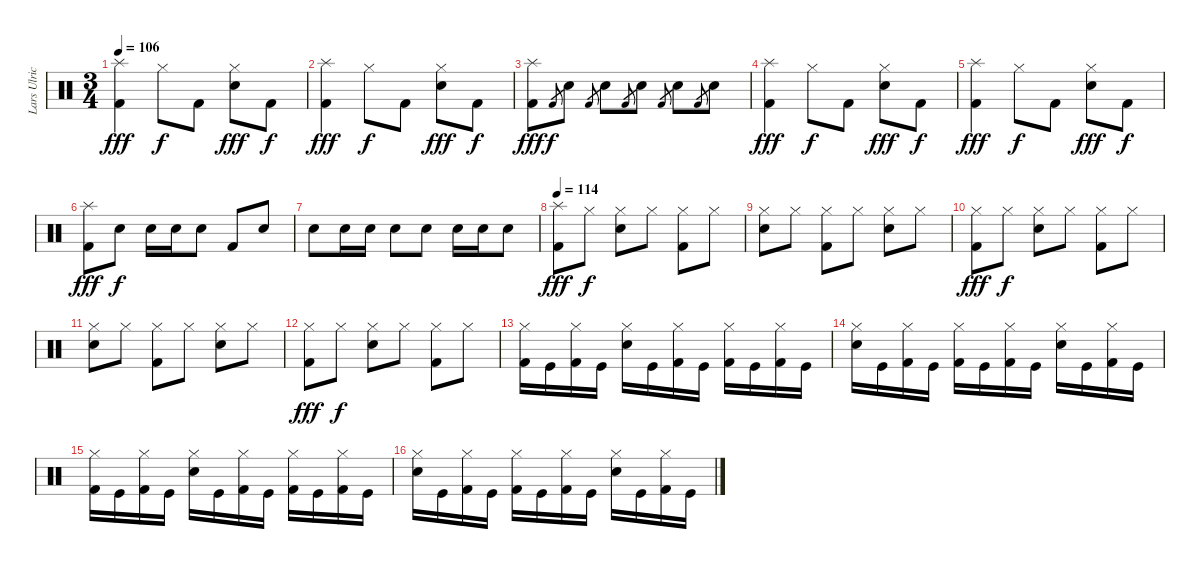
\track ("Lars Ulrich [Drums]" "Lars Ulric") {instrument percussion}
\staff {score}
\articulation defaults
\ts (3 4)
\tempo 106
\clef neutral
\ks c
("Splash (hit)" "Kick (hit) 2").4{dy fff} "Hi-Hat (closed)".8{dy f} "Kick (hit) 2".8 ("Hi-Hat (closed)" "Electric Snare (hit)").8{dy fff} "Kick (hit) 2".8{dy f} |
("Splash (hit)" "Kick (hit) 2").4{dy fff} "Hi-Hat (closed)".8{dy f} "Kick (hit) 2".8 ("Hi-Hat (closed)" "Electric Snare (hit)").8{dy fff} "Kick (hit) 2".8{dy f} |
("Splash (hit)" "Kick (hit) 2").8{dy fff} "Kick (hit) 2".8{gr dy f} "Electric Snare (hit)".8 "Kick (hit) 2".8{gr} "Electric Snare (hit)".8 "Kick (hit) 2".8{gr} "Electric Snare (hit)".8 "Kick (hit) 2".8{gr} "Electric Snare (hit)".8 "Kick (hit) 2".8{gr} "Electric Snare (hit)".8 |
("Splash (hit)" "Kick (hit) 2").4{dy fff} "Hi-Hat (closed)".8{dy f} "Kick (hit) 2".8 ("Hi-Hat (closed)" "Electric Snare (hit)").8{dy fff} "Kick (hit) 2".8{dy f} |
("Splash (hit)" "Kick (hit) 2").4{dy fff} "Hi-Hat (closed)".8{dy f} "Kick (hit) 2".8 ("Hi-Hat (closed)" "Electric Snare (hit)").8{dy fff} "Kick (hit) 2".8{dy f} |
("Splash (hit)" "Kick (hit) 2").8{dy fff} "Electric Snare (hit)".8{dy f} "Electric Snare (hit)".16 "Electric Snare (hit)".16 "Electric Snare (hit)".8 "Kick (hit) 2".8 "Electric Snare (hit)".8 |
"Electric Snare (hit)".8 "Electric Snare (hit)".16 "Electric Snare (hit)".16 "Electric Snare (hit)".8 "Electric Snare (hit)".8 "Electric Snare (hit)".16 "Electric Snare (hit)".16 "Electric Snare (hit)".8 |
\tempo 114
("Splash (hit)" "Kick (hit) 2").8{dy fff} "Hi-Hat (closed)".8{dy f} ("Hi-Hat (closed)" "Electric Snare (hit)").8 "Hi-Hat (closed)".8 ("Hi-Hat (closed)" "Kick (hit) 2").8 "Hi-Hat (closed)".8 |
("Hi-Hat (closed)" "Electric Snare (hit)").8 "Hi-Hat (closed)".8 ("Hi-Hat (closed)" "Kick (hit) 2").8 "Hi-Hat (closed)".8 ("Hi-Hat (closed)" "Electric Snare (hit)").8 "Hi-Hat (closed)".8 |
("Hi-Hat (closed)" "Kick (hit) 2").8{dy fff} "Hi-Hat (closed)".8{dy f} ("Hi-Hat (closed)" "Electric Snare (hit)").8 "Hi-Hat (closed)".8 ("Hi-Hat (closed)" "Kick (hit) 2").8 "Hi-Hat (closed)".8 |
("Hi-Hat (closed)" "Electric Snare (hit)").8 "Hi-Hat (closed)".8 ("Hi-Hat (closed)" "Kick (hit) 2").8 "Hi-Hat (closed)".8 ("Hi-Hat (closed)" "Electric Snare (hit)").8 "Hi-Hat (closed)".8 |
("Hi-Hat (closed)" "Kick (hit) 2").8{dy fff} "Hi-Hat (closed)".8{dy f} ("Hi-Hat (closed)" "Electric Snare (hit)").8 "Hi-Hat (closed)".8 ("Hi-Hat (closed)" "Kick (hit) 2").8 "Hi-Hat (closed)".8 |
("Hi-Hat (closed)" "Kick (hit) 2").16 "Kick (hit)".16 ("Hi-Hat (closed)" "Kick (hit) 2").16 "Kick (hit)".16 ("Hi-Hat (closed)" "Electric Snare (hit)").16 "Kick (hit)".16 ("Hi-Hat (closed)" "Kick (hit) 2").16 "Kick (hit)".16 ("Hi-Hat (closed)" "Kick (hit) 2").16 "Kick (hit)".16 ("Hi-Hat (closed)" "Kick (hit) 2").16 "Kick (hit)".16 |
("Hi-Hat (closed)" "Electric Snare (hit)").16 "Kick (hit)".16 ("Hi-Hat (closed)" "Kick (hit) 2").16 "Kick (hit)".16 ("Hi-Hat (closed)" "Kick (hit) 2").16 "Kick (hit)".16 ("Hi-Hat (closed)" "Kick (hit) 2").16 "Kick (hit)".16 ("Hi-Hat (closed)" "Electric Snare (hit)").16 "Kick (hit)".16 ("Hi-Hat (closed)" "Kick (hit) 2").16 "Kick (hit)".16 |
("Hi-Hat (closed)" "Kick (hit) 2").16 "Kick (hit)".16 ("Hi-Hat (closed)" "Kick (hit) 2").16 "Kick (hit)".16 ("Hi-Hat (closed)" "Electric Snare (hit)").16 "Kick (hit)".16 ("Hi-Hat (closed)" "Kick (hit) 2").16 "Kick (hit)".16 ("Hi-Hat (closed)" "Kick (hit) 2").16 "Kick (hit)".16 ("Hi-Hat (closed)" "Kick (hit) 2").16 "Kick (hit)".16 |
("Hi-Hat (closed)" "Electric Snare (hit)").16 "Kick (hit)".16 ("Hi-Hat (closed)" "Kick (hit) 2").16 "Kick (hit)".16 ("Hi-Hat (closed)" "Kick (hit) 2").16 "Kick (hit)".16 ("Hi-Hat (closed)" "Kick (hit) 2").16 "Kick (hit)".16 ("Hi-Hat (closed)" "Electric Snare (hit)").16 "Kick (hit)".16 ("Hi-Hat (closed)" "Kick (hit) 2").16 "Kick (hit)".16
